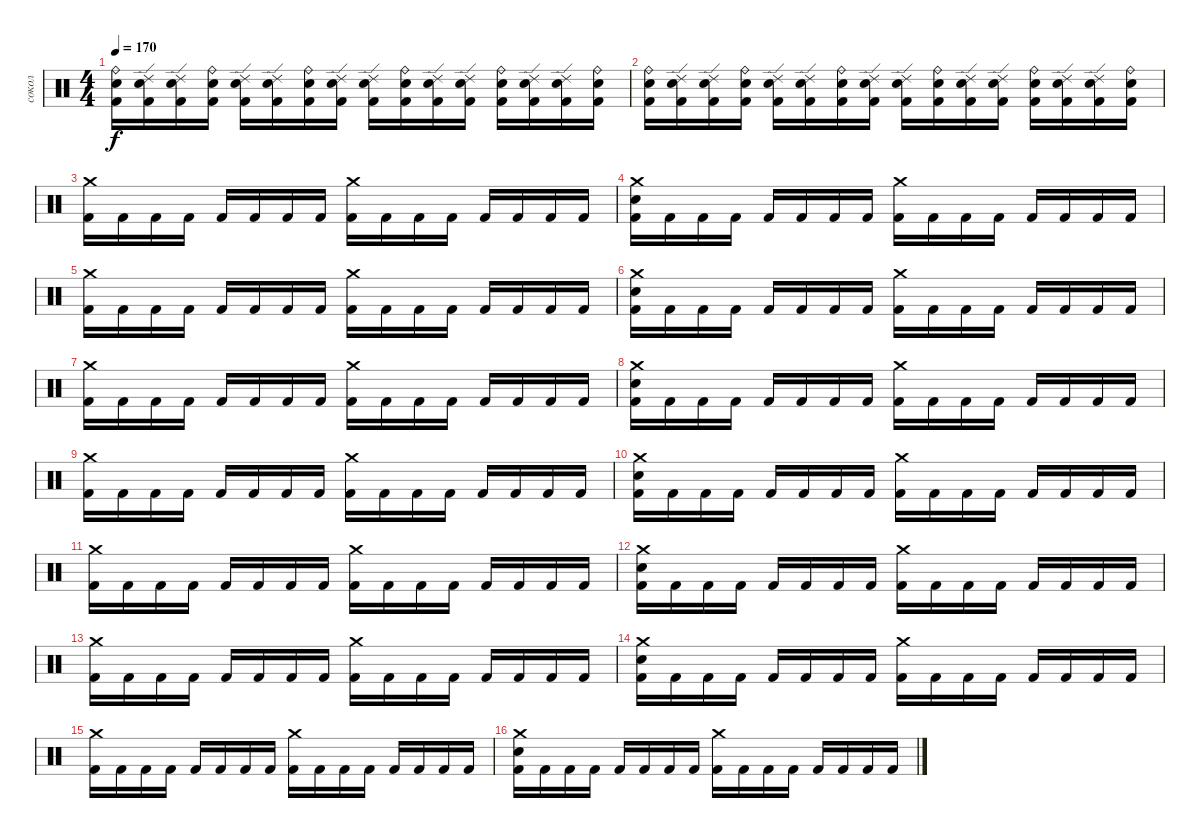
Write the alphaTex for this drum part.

\track ("сокол" "сокол") {instrument percussion}
\staff
\articulation defaults
\ts (4 4)
\tempo 170
\clef neutral
\ks c
("Ride (bell)" "Electric Snare (hit)" "Kick (hit) 2").16{dy f} ("Ride (edge) 2" "Electric Snare (hit)" "Kick (hit) 2").16 ("Ride (edge) 2" "Electric Snare (hit)" "Kick (hit) 2").16 ("Ride (bell)" "Electric Snare (hit)" "Kick (hit) 2").16 ("Ride (edge) 2" "Electric Snare (hit)" "Kick (hit) 2").16 ("Ride (edge) 2" "Electric Snare (hit)" "Kick (hit) 2").16 ("Ride (bell)" "Electric Snare (hit)" "Kick (hit) 2").16 ("Ride (edge) 2" "Electric Snare (hit)" "Kick (hit) 2").16 ("Ride (edge) 2" "Electric Snare (hit)" "Kick (hit) 2").16 ("Ride (bell)" "Electric Snare (hit)" "Kick (hit) 2").16 ("Ride (edge) 2" "Electric Snare (hit)" "Kick (hit) 2").16 ("Ride (edge) 2" "Electric Snare (hit)" "Kick (hit) 2").16 ("Ride (bell)" "Electric Snare (hit)" "Kick (hit) 2").16 ("Ride (edge) 2" "Electric Snare (hit)" "Kick (hit) 2").16 ("Ride (edge) 2" "Electric Snare (hit)" "Kick (hit) 2").16 ("Ride (bell)" "Electric Snare (hit)" "Kick (hit) 2").16 |
("Ride (bell)" "Electric Snare (hit)" "Kick (hit) 2").16 ("Ride (edge) 2" "Electric Snare (hit)" "Kick (hit) 2").16 ("Ride (edge) 2" "Electric Snare (hit)" "Kick (hit) 2").16 ("Ride (bell)" "Electric Snare (hit)" "Kick (hit) 2").16 ("Ride (edge) 2" "Electric Snare (hit)" "Kick (hit) 2").16 ("Ride (edge) 2" "Electric Snare (hit)" "Kick (hit) 2").16 ("Ride (bell)" "Electric Snare (hit)" "Kick (hit) 2").16 ("Ride (edge) 2" "Electric Snare (hit)" "Kick (hit) 2").16 ("Ride (edge) 2" "Electric Snare (hit)" "Kick (hit) 2").16 ("Ride (bell)" "Electric Snare (hit)" "Kick (hit) 2").16 ("Ride (edge) 2" "Electric Snare (hit)" "Kick (hit) 2").16 ("Ride (edge) 2" "Electric Snare (hit)" "Kick (hit) 2").16 ("Ride (bell)" "Electric Snare (hit)" "Kick (hit) 2").16 ("Ride (edge) 2" "Electric Snare (hit)" "Kick (hit) 2").16 ("Ride (edge) 2" "Electric Snare (hit)" "Kick (hit) 2").16 ("Ride (bell)" "Electric Snare (hit)" "Kick (hit) 2").16 |
("Crash medium (hit)" "Kick (hit) 2").16 "Kick (hit) 2".16 "Kick (hit) 2".16 "Kick (hit) 2".16 "Kick (hit) 2".16 "Kick (hit) 2".16 "Kick (hit) 2".16 "Kick (hit) 2".16 ("Crash medium (hit)" "Kick (hit) 2").16 "Kick (hit) 2".16 "Kick (hit) 2".16 "Kick (hit) 2".16 "Kick (hit) 2".16 "Kick (hit) 2".16 "Kick (hit) 2".16 "Kick (hit) 2".16 |
("Crash medium (hit)" "Electric Snare (hit)" "Kick (hit) 2").16 "Kick (hit) 2".16 "Kick (hit) 2".16 "Kick (hit) 2".16 "Kick (hit) 2".16 "Kick (hit) 2".16 "Kick (hit) 2".16 "Kick (hit) 2".16 ("Crash medium (hit)" "Kick (hit) 2").16 "Kick (hit) 2".16 "Kick (hit) 2".16 "Kick (hit) 2".16 "Kick (hit) 2".16 "Kick (hit) 2".16 "Kick (hit) 2".16 "Kick (hit) 2".16 |
("Crash medium (hit)" "Kick (hit) 2").16 "Kick (hit) 2".16 "Kick (hit) 2".16 "Kick (hit) 2".16 "Kick (hit) 2".16 "Kick (hit) 2".16 "Kick (hit) 2".16 "Kick (hit) 2".16 ("Crash medium (hit)" "Kick (hit) 2").16 "Kick (hit) 2".16 "Kick (hit) 2".16 "Kick (hit) 2".16 "Kick (hit) 2".16 "Kick (hit) 2".16 "Kick (hit) 2".16 "Kick (hit) 2".16 |
("Crash medium (hit)" "Electric Snare (hit)" "Kick (hit) 2").16 "Kick (hit) 2".16 "Kick (hit) 2".16 "Kick (hit) 2".16 "Kick (hit) 2".16 "Kick (hit) 2".16 "Kick (hit) 2".16 "Kick (hit) 2".16 ("Crash medium (hit)" "Kick (hit) 2").16 "Kick (hit) 2".16 "Kick (hit) 2".16 "Kick (hit) 2".16 "Kick (hit) 2".16 "Kick (hit) 2".16 "Kick (hit) 2".16 "Kick (hit) 2".16 |
("Crash medium (hit)" "Kick (hit) 2").16 "Kick (hit) 2".16 "Kick (hit) 2".16 "Kick (hit) 2".16 "Kick (hit) 2".16 "Kick (hit) 2".16 "Kick (hit) 2".16 "Kick (hit) 2".16 ("Crash medium (hit)" "Kick (hit) 2").16 "Kick (hit) 2".16 "Kick (hit) 2".16 "Kick (hit) 2".16 "Kick (hit) 2".16 "Kick (hit) 2".16 "Kick (hit) 2".16 "Kick (hit) 2".16 |
("Crash medium (hit)" "Electric Snare (hit)" "Kick (hit) 2").16 "Kick (hit) 2".16 "Kick (hit) 2".16 "Kick (hit) 2".16 "Kick (hit) 2".16 "Kick (hit) 2".16 "Kick (hit) 2".16 "Kick (hit) 2".16 ("Crash medium (hit)" "Kick (hit) 2").16 "Kick (hit) 2".16 "Kick (hit) 2".16 "Kick (hit) 2".16 "Kick (hit) 2".16 "Kick (hit) 2".16 "Kick (hit) 2".16 "Kick (hit) 2".16 |
("Crash medium (hit)" "Kick (hit) 2").16 "Kick (hit) 2".16 "Kick (hit) 2".16 "Kick (hit) 2".16 "Kick (hit) 2".16 "Kick (hit) 2".16 "Kick (hit) 2".16 "Kick (hit) 2".16 ("Crash medium (hit)" "Kick (hit) 2").16 "Kick (hit) 2".16 "Kick (hit) 2".16 "Kick (hit) 2".16 "Kick (hit) 2".16 "Kick (hit) 2".16 "Kick (hit) 2".16 "Kick (hit) 2".16 |
("Crash medium (hit)" "Electric Snare (hit)" "Kick (hit) 2").16 "Kick (hit) 2".16 "Kick (hit) 2".16 "Kick (hit) 2".16 "Kick (hit) 2".16 "Kick (hit) 2".16 "Kick (hit) 2".16 "Kick (hit) 2".16 ("Crash medium (hit)" "Kick (hit) 2").16 "Kick (hit) 2".16 "Kick (hit) 2".16 "Kick (hit) 2".16 "Kick (hit) 2".16 "Kick (hit) 2".16 "Kick (hit) 2".16 "Kick (hit) 2".16 |
("Crash medium (hit)" "Kick (hit) 2").16 "Kick (hit) 2".16 "Kick (hit) 2".16 "Kick (hit) 2".16 "Kick (hit) 2".16 "Kick (hit) 2".16 "Kick (hit) 2".16 "Kick (hit) 2".16 ("Crash medium (hit)" "Kick (hit) 2").16 "Kick (hit) 2".16 "Kick (hit) 2".16 "Kick (hit) 2".16 "Kick (hit) 2".16 "Kick (hit) 2".16 "Kick (hit) 2".16 "Kick (hit) 2".16 |
("Crash medium (hit)" "Electric Snare (hit)" "Kick (hit) 2").16 "Kick (hit) 2".16 "Kick (hit) 2".16 "Kick (hit) 2".16 "Kick (hit) 2".16 "Kick (hit) 2".16 "Kick (hit) 2".16 "Kick (hit) 2".16 ("Crash medium (hit)" "Kick (hit) 2").16 "Kick (hit) 2".16 "Kick (hit) 2".16 "Kick (hit) 2".16 "Kick (hit) 2".16 "Kick (hit) 2".16 "Kick (hit) 2".16 "Kick (hit) 2".16 |
("Crash medium (hit)" "Kick (hit) 2").16 "Kick (hit) 2".16 "Kick (hit) 2".16 "Kick (hit) 2".16 "Kick (hit) 2".16 "Kick (hit) 2".16 "Kick (hit) 2".16 "Kick (hit) 2".16 ("Crash medium (hit)" "Kick (hit) 2").16 "Kick (hit) 2".16 "Kick (hit) 2".16 "Kick (hit) 2".16 "Kick (hit) 2".16 "Kick (hit) 2".16 "Kick (hit) 2".16 "Kick (hit) 2".16 |
("Crash medium (hit)" "Electric Snare (hit)" "Kick (hit) 2").16 "Kick (hit) 2".16 "Kick (hit) 2".16 "Kick (hit) 2".16 "Kick (hit) 2".16 "Kick (hit) 2".16 "Kick (hit) 2".16 "Kick (hit) 2".16 ("Crash medium (hit)" "Kick (hit) 2").16 "Kick (hit) 2".16 "Kick (hit) 2".16 "Kick (hit) 2".16 "Kick (hit) 2".16 "Kick (hit) 2".16 "Kick (hit) 2".16 "Kick (hit) 2".16 |
("Crash medium (hit)" "Kick (hit) 2").16 "Kick (hit) 2".16 "Kick (hit) 2".16 "Kick (hit) 2".16 "Kick (hit) 2".16 "Kick (hit) 2".16 "Kick (hit) 2".16 "Kick (hit) 2".16 ("Crash medium (hit)" "Kick (hit) 2").16 "Kick (hit) 2".16 "Kick (hit) 2".16 "Kick (hit) 2".16 "Kick (hit) 2".16 "Kick (hit) 2".16 "Kick (hit) 2".16 "Kick (hit) 2".16 |
("Crash medium (hit)" "Electric Snare (hit)" "Kick (hit) 2").16 "Kick (hit) 2".16 "Kick (hit) 2".16 "Kick (hit) 2".16 "Kick (hit) 2".16 "Kick (hit) 2".16 "Kick (hit) 2".16 "Kick (hit) 2".16 ("Crash medium (hit)" "Kick (hit) 2").16 "Kick (hit) 2".16 "Kick (hit) 2".16 "Kick (hit) 2".16 "Kick (hit) 2".16 "Kick (hit) 2".16 "Kick (hit) 2".16 "Kick (hit) 2".16
